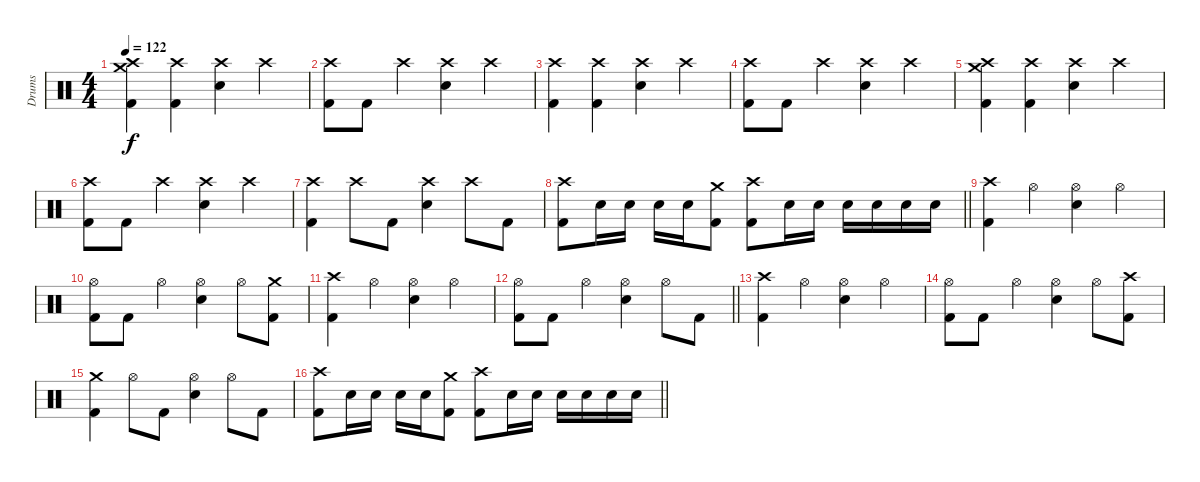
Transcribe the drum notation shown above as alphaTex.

\track ("Drums" "Drums") {instrument percussion}
\staff {score}
\articulation defaults
\ts (4 4)
\tempo 122
\clef neutral
\ks c
("Crash high (hit)" "Crash medium (hit)" "Kick (hit) 2").4{dy f} ("Crash high (hit)" "Kick (hit) 2").4 ("Crash high (hit)" "Electric Snare (hit)").4 "Crash high (hit)".4 |
("Crash high (hit)" "Kick (hit) 2").8 "Kick (hit) 2".8 "Crash high (hit)".4 ("Crash high (hit)" "Electric Snare (hit)").4 "Crash high (hit)".4 |
("Crash high (hit)" "Kick (hit) 2").4 ("Crash high (hit)" "Kick (hit) 2").4 ("Crash high (hit)" "Electric Snare (hit)").4 "Crash high (hit)".4 |
("Crash high (hit)" "Kick (hit) 2").8 "Kick (hit) 2".8 "Crash high (hit)".4 ("Crash high (hit)" "Electric Snare (hit)").4 "Crash high (hit)".4 |
("Crash high (hit)" "Crash medium (hit)" "Kick (hit) 2").4 ("Crash high (hit)" "Kick (hit) 2").4 ("Crash high (hit)" "Electric Snare (hit)").4 "Crash high (hit)".4 |
("Crash high (hit)" "Kick (hit) 2").8 "Kick (hit) 2".8 "Crash high (hit)".4 ("Crash high (hit)" "Electric Snare (hit)").4 "Crash high (hit)".4 |
("Crash high (hit)" "Kick (hit) 2").4 "Crash high (hit)".8 "Kick (hit) 2".8 ("Crash high (hit)" "Electric Snare (hit)").4 "Crash high (hit)".8 "Kick (hit) 2".8 |
\barLineRight lightlight
("Crash high (hit)" "Kick (hit) 2").8 "Electric Snare (hit)".16 "Electric Snare (hit)".16 "Electric Snare (hit)".16 "Electric Snare (hit)".16 ("Crash medium (hit)" "Kick (hit) 2").8 ("Crash high (hit)" "Kick (hit) 2").8 "Electric Snare (hit)".16 "Electric Snare (hit)".16 "Electric Snare (hit)".16 "Electric Snare (hit)".16 "Electric Snare (hit)".16 "Electric Snare (hit)".16 |
("Crash high (hit)" "Kick (hit) 2").4 "Hi-Hat (open)".4 ("Hi-Hat (open)" "Electric Snare (hit)").4 "Hi-Hat (open)".4 |
("Hi-Hat (open)" "Kick (hit) 2").8 "Kick (hit) 2".8 "Hi-Hat (open)".4 ("Hi-Hat (open)" "Electric Snare (hit)").4 "Hi-Hat (open)".8 ("Crash medium (hit)" "Kick (hit) 2").8 |
("Crash high (hit)" "Kick (hit) 2").4 "Hi-Hat (open)".4 ("Hi-Hat (open)" "Electric Snare (hit)").4 "Hi-Hat (open)".4 |
\barLineRight lightlight
("Hi-Hat (open)" "Kick (hit) 2").8 "Kick (hit) 2".8 "Hi-Hat (open)".4 ("Hi-Hat (open)" "Electric Snare (hit)").4 "Hi-Hat (open)".8 "Kick (hit) 2".8 |
("Crash high (hit)" "Kick (hit) 2").4 "Hi-Hat (open)".4 ("Hi-Hat (open)" "Electric Snare (hit)").4 "Hi-Hat (open)".4 |
("Hi-Hat (open)" "Kick (hit) 2").8 "Kick (hit) 2".8 "Hi-Hat (open)".4 ("Hi-Hat (open)" "Electric Snare (hit)").4 "Hi-Hat (open)".8 ("Crash high (hit)" "Kick (hit) 2").8 |
("Crash medium (hit)" "Kick (hit) 2").4 "Hi-Hat (open)".8 "Kick (hit) 2".8 ("Hi-Hat (open)" "Electric Snare (hit)").4 "Hi-Hat (open)".8 "Kick (hit) 2".8 |
\barLineRight lightlight
("Crash high (hit)" "Kick (hit) 2").8 "Electric Snare (hit)".16 "Electric Snare (hit)".16 "Electric Snare (hit)".16 "Electric Snare (hit)".16 ("Crash medium (hit)" "Kick (hit) 2").8 ("Crash high (hit)" "Kick (hit) 2").8 "Electric Snare (hit)".16 "Electric Snare (hit)".16 "Electric Snare (hit)".16 "Electric Snare (hit)".16 "Electric Snare (hit)".16 "Electric Snare (hit)".16
